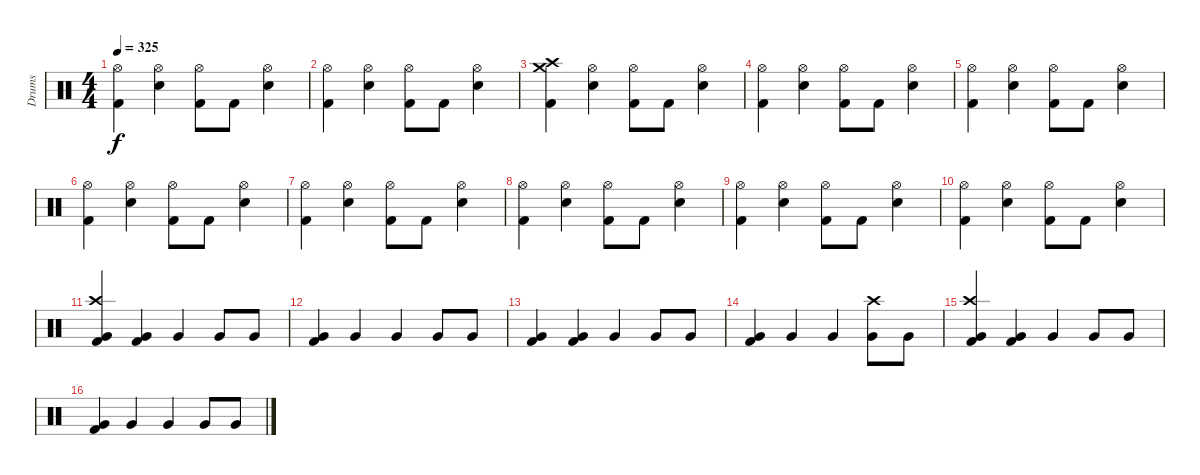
\track ("Drums" "Drums") {instrument percussion}
\staff {score}
\articulation defaults
\ts (4 4)
\tempo 325
\clef neutral
\ks c
("Kick (hit) 2" "Hi-Hat (open)").4{dy f} ("Electric Snare (hit)" "Hi-Hat (open)").4 ("Kick (hit) 2" "Hi-Hat (open)").8 "Kick (hit) 2".8 ("Electric Snare (hit)" "Hi-Hat (open)").4 |
("Kick (hit) 2" "Hi-Hat (open)").4 ("Electric Snare (hit)" "Hi-Hat (open)").4 ("Kick (hit) 2" "Hi-Hat (open)").8 "Kick (hit) 2".8 ("Electric Snare (hit)" "Hi-Hat (open)").4 |
("Crash high (hit)" "Crash medium (hit)" "Kick (hit) 2").4 ("Electric Snare (hit)" "Hi-Hat (open)").4 ("Kick (hit) 2" "Hi-Hat (open)").8 "Kick (hit) 2".8 ("Electric Snare (hit)" "Hi-Hat (open)").4 |
("Kick (hit) 2" "Hi-Hat (open)").4 ("Electric Snare (hit)" "Hi-Hat (open)").4 ("Kick (hit) 2" "Hi-Hat (open)").8 "Kick (hit) 2".8 ("Electric Snare (hit)" "Hi-Hat (open)").4 |
("Kick (hit) 2" "Hi-Hat (open)").4 ("Electric Snare (hit)" "Hi-Hat (open)").4 ("Kick (hit) 2" "Hi-Hat (open)").8 "Kick (hit) 2".8 ("Electric Snare (hit)" "Hi-Hat (open)").4 |
("Kick (hit) 2" "Hi-Hat (open)").4 ("Electric Snare (hit)" "Hi-Hat (open)").4 ("Kick (hit) 2" "Hi-Hat (open)").8 "Kick (hit) 2".8 ("Electric Snare (hit)" "Hi-Hat (open)").4 |
("Hi-Hat (open)" "Kick (hit) 2").4 ("Electric Snare (hit)" "Hi-Hat (open)").4 ("Kick (hit) 2" "Hi-Hat (open)").8 "Kick (hit) 2".8 ("Electric Snare (hit)" "Hi-Hat (open)").4 |
("Kick (hit) 2" "Hi-Hat (open)").4 ("Electric Snare (hit)" "Hi-Hat (open)").4 ("Kick (hit) 2" "Hi-Hat (open)").8 "Kick (hit) 2".8 ("Electric Snare (hit)" "Hi-Hat (open)").4 |
("Kick (hit) 2" "Hi-Hat (open)").4 ("Electric Snare (hit)" "Hi-Hat (open)").4 ("Kick (hit) 2" "Hi-Hat (open)").8 "Kick (hit) 2".8 ("Electric Snare (hit)" "Hi-Hat (open)").4 |
("Kick (hit) 2" "Hi-Hat (open)").4 ("Electric Snare (hit)" "Hi-Hat (open)").4 ("Kick (hit) 2" "Hi-Hat (open)").8 "Kick (hit) 2".8 ("Electric Snare (hit)" "Hi-Hat (open)").4 |
("Kick (hit) 2" "Very Low Tom (hit)" "Crash high (hit)").4 ("Kick (hit) 2" "Very Low Tom (hit)").4 "Very Low Tom (hit)".4 "Very Low Tom (hit)".8 "Very Low Tom (hit)".8 |
("Very Low Tom (hit)" "Kick (hit) 2").4 "Very Low Tom (hit)".4 "Very Low Tom (hit)".4 "Very Low Tom (hit)".8 "Very Low Tom (hit)".8 |
("Very Low Tom (hit)" "Kick (hit) 2").4 ("Kick (hit) 2" "Very Low Tom (hit)").4 "Very Low Tom (hit)".4 "Very Low Tom (hit)".8 "Very Low Tom (hit)".8 |
("Very Low Tom (hit)" "Kick (hit) 2").4 "Very Low Tom (hit)".4 "Very Low Tom (hit)".4 ("Very Low Tom (hit)" "Crash high (hit)").8 "Very Low Tom (hit)".8 |
("Very Low Tom (hit)" "Kick (hit) 2" "Crash high (hit)").4 ("Kick (hit) 2" "Very Low Tom (hit)").4 "Very Low Tom (hit)".4 "Very Low Tom (hit)".8 "Very Low Tom (hit)".8 |
("Very Low Tom (hit)" "Kick (hit) 2").4 "Very Low Tom (hit)".4 "Very Low Tom (hit)".4 "Very Low Tom (hit)".8 "Very Low Tom (hit)".8
